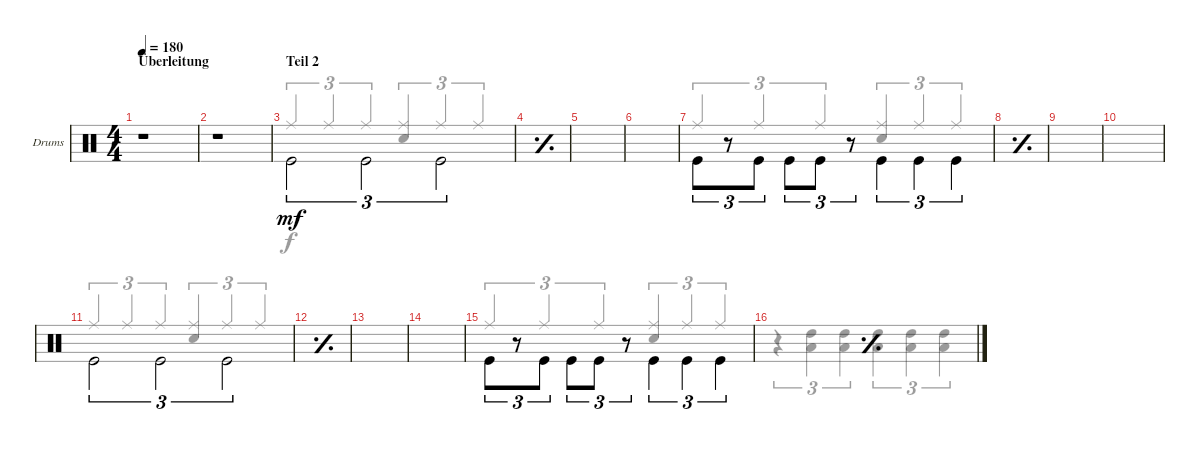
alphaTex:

\defaultSystemsLayout 4
\bracketExtendMode groupsimilarinstruments
\multiBarRest
\firstSystemTrackNameOrientation horizontal
\otherSystemsTrackNameOrientation horizontal
\track ("Drumkit" "Drums") {instrument percussion}
\staff {score}
\articulation defaults
\voice
\ts (4 4)
\section ("" "Überleitung")
\tempo 180
\clef neutral
\ks c
r.1{dy mf} |
r.1 |
\section ("" "Teil 2")
"Kick (hit)".2{tu (3 2) beam invert} "Kick (hit)".2{tu (3 2) beam invert} "Kick (hit)".2{tu (3 2) beam invert} |
\simile simple
|
|
|
\simile none "Kick (hit)".8{tu (3 2)}
r.8{tu (3 2) beam invert} "Kick (hit)".8{tu (3 2) beam invert} "Kick (hit)".8{tu (3 2)} "Kick (hit)".8{tu (3 2) beam invert} r.8{tu (3 2) beam invert} "Kick (hit)".4{tu (3 2) beam invert} "Kick (hit)".4{tu (3 2) beam invert} "Kick (hit)".4{tu (3 2) beam invert} |
\simile simple
|
|
|
\simile none "Kick (hit)".2{tu (3 2) beam invert} "Kick (hit)".2{tu (3 2) beam invert} "Kick (hit)".2{tu (3 2) beam invert}
|
\simile simple
|
|
|
\simile none "Kick (hit)".8{tu (3 2)}
r.8{tu (3 2) beam invert} "Kick (hit)".8{tu (3 2) beam invert} "Kick (hit)".8{tu (3 2)} "Kick (hit)".8{tu (3 2) beam invert} r.8{tu (3 2) beam invert} "Kick (hit)".4{tu (3 2) beam invert} "Kick (hit)".4{tu (3 2) beam invert} "Kick (hit)".4{tu (3 2) beam invert} |
\simile simple
\voice
\clef neutral
\ottava regular
\simile none
\ks c
r.4{tu (3 2) dy f} ("High Tom (hit)" "Low Tom (hit)").4{tu (3 2)} ("High Tom (hit)" "Low Tom (hit)").4{tu (3 2)} ("High Tom (hit)" "Low Tom (hit)").4{tu (3 2)} ("High Tom (hit)" "Low Tom (hit)").4{tu (3 2)} ("High Tom (hit)" "Low Tom (hit)").4{tu (3 2)} |
|
"Ride (middle)".4{tu (3 2) beam invert} "Ride (middle)".4{tu (3 2) beam invert} "Ride (middle)".4{tu (3 2) beam invert} ("Ride (middle)" "Snare (hit) 2").4{tu (3 2) beam invert} "Ride (middle)".4{tu (3 2) beam invert} "Ride (middle)".4{tu (3 2) beam invert} |
\simile simple
|
|
|
\simile none "Ride (middle)".4{tu (3 2) beam invert} "Ride (middle)".4{tu (3 2) beam invert} "Ride (middle)".4{tu (3 2) beam invert}
("Snare (hit) 2" "Ride (middle)").4{tu (3 2) beam invert} "Ride (middle)".4{tu (3 2) beam invert} "Ride (middle)".4{tu (3 2) beam invert} |
\simile simple
|
|
|
\simile none "Ride (middle)".4{tu (3 2) beam invert} "Ride (middle)".4{tu (3 2) beam invert} "Ride (middle)".4{tu (3 2) beam invert}
("Ride (middle)" "Snare (hit) 2").4{tu (3 2) beam invert} "Ride (middle)".4{tu (3 2) beam invert} "Ride (middle)".4{tu (3 2) beam invert} |
\simile simple
|
|
|
\simile none "Ride (middle)".4{tu (3 2) beam invert} "Ride (middle)".4{tu (3 2) beam invert} "Ride (middle)".4{tu (3 2) beam invert}
("Snare (hit) 2" "Ride (middle)").4{tu (3 2) beam invert} "Ride (middle)".4{tu (3 2) beam invert} "Ride (middle)".4{tu (3 2) beam invert} |
\simile simple
